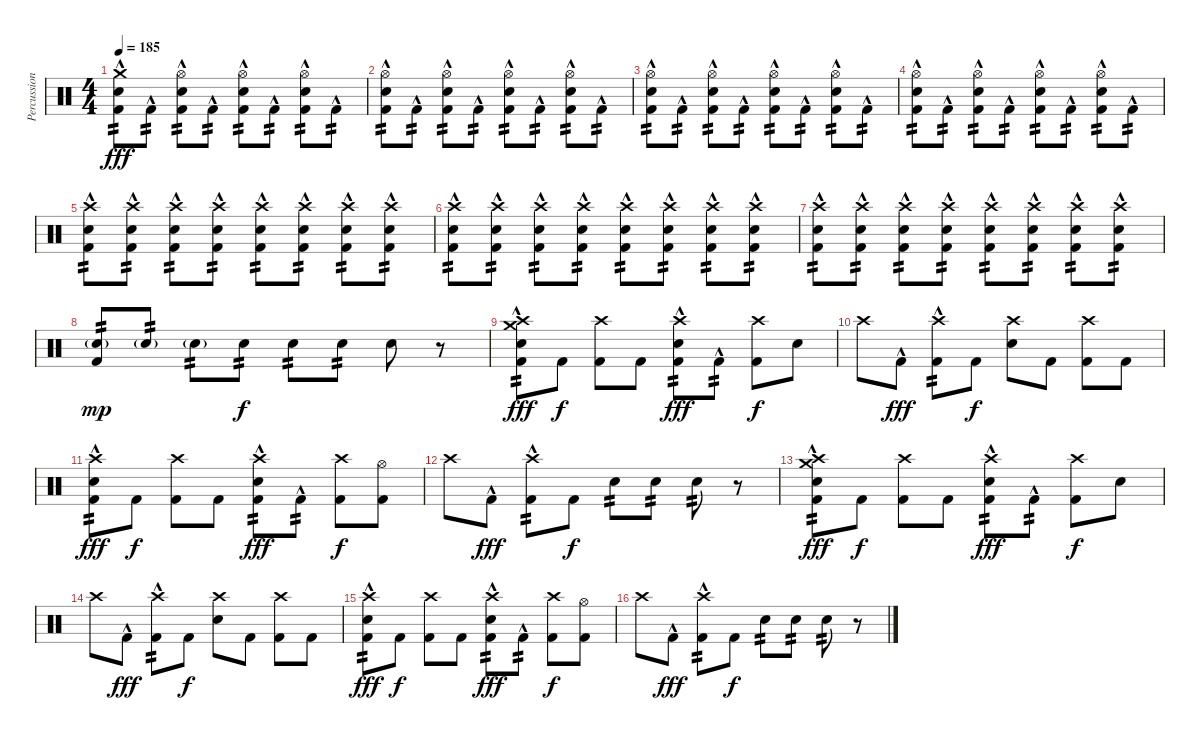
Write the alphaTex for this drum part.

\track ("Percussion" "Percussion") {instrument percussion}
\staff {score}
\articulation defaults
\ts (4 4)
\tempo 185
\clef neutral
\ks c
("Crash medium (hit)" "Snare (hit) 2" "Kick (hit) 2"{hac}).8{tp 2 dy fff} "Kick (hit) 2"{hac}.8{tp 2} ("Hi-Hat (open)" "Snare (hit) 2" "Kick (hit) 2"{hac}).8{tp 2} "Kick (hit) 2"{hac}.8{tp 2} ("Hi-Hat (open)" "Snare (hit) 2" "Kick (hit) 2"{hac}).8{tp 2} "Kick (hit) 2"{hac}.8{tp 2} ("Hi-Hat (open)" "Snare (hit) 2" "Kick (hit) 2"{hac}).8{tp 2} "Kick (hit) 2"{hac}.8{tp 2} |
("Hi-Hat (open)" "Snare (hit) 2" "Kick (hit) 2"{hac}).8{tp 2} "Kick (hit) 2"{hac}.8{tp 2} ("Hi-Hat (open)" "Snare (hit) 2" "Kick (hit) 2"{hac}).8{tp 2} "Kick (hit) 2"{hac}.8{tp 2} ("Hi-Hat (open)" "Snare (hit) 2" "Kick (hit) 2"{hac}).8{tp 2} "Kick (hit) 2"{hac}.8{tp 2} ("Hi-Hat (open)" "Snare (hit) 2" "Kick (hit) 2"{hac}).8{tp 2} "Kick (hit) 2"{hac}.8{tp 2} |
("Hi-Hat (open)" "Snare (hit) 2" "Kick (hit) 2"{hac}).8{tp 2} "Kick (hit) 2"{hac}.8{tp 2} ("Hi-Hat (open)" "Snare (hit) 2" "Kick (hit) 2"{hac}).8{tp 2} "Kick (hit) 2"{hac}.8{tp 2} ("Hi-Hat (open)" "Snare (hit) 2" "Kick (hit) 2"{hac}).8{tp 2} "Kick (hit) 2"{hac}.8{tp 2} ("Hi-Hat (open)" "Snare (hit) 2" "Kick (hit) 2"{hac}).8{tp 2} "Kick (hit) 2"{hac}.8{tp 2} |
("Hi-Hat (open)" "Snare (hit) 2" "Kick (hit) 2"{hac}).8{tp 2} "Kick (hit) 2"{hac}.8{tp 2} ("Hi-Hat (open)" "Snare (hit) 2" "Kick (hit) 2"{hac}).8{tp 2} "Kick (hit) 2"{hac}.8{tp 2} ("Hi-Hat (open)" "Snare (hit) 2" "Kick (hit) 2"{hac}).8{tp 2} "Kick (hit) 2"{hac}.8{tp 2} ("Hi-Hat (open)" "Snare (hit) 2" "Kick (hit) 2"{hac}).8{tp 2} "Kick (hit) 2"{hac}.8{tp 2} |
("Crash high (hit)" "Snare (hit) 2" "Kick (hit) 2"{hac}).8{tp 2} ("Crash high (hit)" "Snare (hit) 2" "Kick (hit) 2"{hac}).8{tp 2} ("Crash high (hit)" "Snare (hit) 2" "Kick (hit) 2"{hac}).8{tp 2} ("Crash high (hit)" "Snare (hit) 2" "Kick (hit) 2"{hac}).8{tp 2} ("Crash high (hit)" "Snare (hit) 2" "Kick (hit) 2"{hac}).8{tp 2} ("Crash high (hit)" "Snare (hit) 2" "Kick (hit) 2"{hac}).8{tp 2} ("Crash high (hit)" "Snare (hit) 2" "Kick (hit) 2"{hac}).8{tp 2} ("Crash high (hit)" "Snare (hit) 2" "Kick (hit) 2"{hac}).8{tp 2} |
("Crash high (hit)" "Snare (hit) 2" "Kick (hit) 2"{hac}).8{tp 2} ("Crash high (hit)" "Snare (hit) 2" "Kick (hit) 2"{hac}).8{tp 2} ("Crash high (hit)" "Snare (hit) 2" "Kick (hit) 2"{hac}).8{tp 2} ("Crash high (hit)" "Snare (hit) 2" "Kick (hit) 2"{hac}).8{tp 2} ("Crash high (hit)" "Snare (hit) 2" "Kick (hit) 2"{hac}).8{tp 2} ("Crash high (hit)" "Snare (hit) 2" "Kick (hit) 2"{hac}).8{tp 2} ("Crash high (hit)" "Snare (hit) 2" "Kick (hit) 2"{hac}).8{tp 2} ("Crash high (hit)" "Snare (hit) 2" "Kick (hit) 2"{hac}).8{tp 2} |
("Crash high (hit)" "Snare (hit) 2" "Kick (hit) 2"{hac}).8{tp 2} ("Crash high (hit)" "Snare (hit) 2" "Kick (hit) 2"{hac}).8{tp 2} ("Crash high (hit)" "Snare (hit) 2" "Kick (hit) 2"{hac}).8{tp 2} ("Crash high (hit)" "Snare (hit) 2" "Kick (hit) 2"{hac}).8{tp 2} ("Crash high (hit)" "Snare (hit) 2" "Kick (hit) 2"{hac}).8{tp 2} ("Crash high (hit)" "Snare (hit) 2" "Kick (hit) 2"{hac}).8{tp 2} ("Crash high (hit)" "Snare (hit) 2" "Kick (hit) 2"{hac}).8{tp 2} ("Crash high (hit)" "Snare (hit) 2" "Kick (hit) 2"{hac}).8{tp 2} |
("Snare (hit) 2"{g} "Kick (hit) 2").8{tp 2 dy mp} "Snare (hit) 2"{g}.8{tp 2} "Snare (hit) 2"{g}.8{tp 2} "Snare (hit) 2".8{tp 2 dy f} "Snare (hit) 2".8{tp 2} "Snare (hit) 2".8{tp 2} "Snare (hit) 2".8 r.8 |
("Crash medium (hit)" "Crash high (hit)" "Kick (hit) 2"{hac} "Snare (hit) 2").8{tp 2 dy fff} "Kick (hit) 2".8{dy f} ("Crash high (hit)" "Kick (hit) 2").8 "Kick (hit) 2".8 ("Crash high (hit)" "Kick (hit) 2"{hac} "Snare (hit) 2").8{tp 2 dy fff} "Kick (hit) 2"{hac}.8{tp 2} ("Crash high (hit)" "Kick (hit) 2").8{dy f} "Snare (hit) 2".8 |
"Crash high (hit)".8 "Kick (hit) 2"{hac}.8{dy fff} ("Crash high (hit)" "Kick (hit) 2"{hac}).8{tp 2} "Kick (hit) 2".8{dy f} ("Crash high (hit)" "Snare (hit) 2").8 "Kick (hit) 2".8 ("Crash high (hit)" "Kick (hit) 2").8 "Kick (hit) 2".8 |
("Crash high (hit)" "Kick (hit) 2"{hac} "Snare (hit) 2").8{tp 2 dy fff} "Kick (hit) 2".8{dy f} ("Crash high (hit)" "Kick (hit) 2").8 "Kick (hit) 2".8 ("Crash high (hit)" "Kick (hit) 2"{hac} "Snare (hit) 2").8{tp 2 dy fff} "Kick (hit) 2"{hac}.8{tp 2} ("Crash high (hit)" "Kick (hit) 2").8{dy f} ("Hi-Hat (open)" "Kick (hit) 2").8 |
"Crash high (hit)".8 "Kick (hit) 2"{hac}.8{dy fff} ("Crash high (hit)" "Kick (hit) 2"{hac}).8{tp 2} "Kick (hit) 2".8{dy f} "Snare (hit) 2".8{tp 2} "Snare (hit) 2".8{tp 2} "Snare (hit) 2".8{tp 2} r.8 |
("Crash medium (hit)" "Crash high (hit)" "Kick (hit) 2"{hac} "Snare (hit) 2").8{tp 2 dy fff} "Kick (hit) 2".8{dy f} ("Crash high (hit)" "Kick (hit) 2").8 "Kick (hit) 2".8 ("Crash high (hit)" "Kick (hit) 2"{hac} "Snare (hit) 2").8{tp 2 dy fff} "Kick (hit) 2"{hac}.8{tp 2} ("Crash high (hit)" "Kick (hit) 2").8{dy f} "Snare (hit) 2".8 |
"Crash high (hit)".8 "Kick (hit) 2"{hac}.8{dy fff} ("Crash high (hit)" "Kick (hit) 2"{hac}).8{tp 2} "Kick (hit) 2".8{dy f} ("Crash high (hit)" "Snare (hit) 2").8 "Kick (hit) 2".8 ("Crash high (hit)" "Kick (hit) 2").8 "Kick (hit) 2".8 |
("Crash high (hit)" "Kick (hit) 2"{hac} "Snare (hit) 2").8{tp 2 dy fff} "Kick (hit) 2".8{dy f} ("Crash high (hit)" "Kick (hit) 2").8 "Kick (hit) 2".8 ("Crash high (hit)" "Kick (hit) 2"{hac} "Snare (hit) 2").8{tp 2 dy fff} "Kick (hit) 2"{hac}.8{tp 2} ("Crash high (hit)" "Kick (hit) 2").8{dy f} ("Hi-Hat (open)" "Kick (hit) 2").8 |
"Crash high (hit)".8 "Kick (hit) 2"{hac}.8{dy fff} ("Crash high (hit)" "Kick (hit) 2"{hac}).8{tp 2} "Kick (hit) 2".8{dy f} "Snare (hit) 2".8{tp 2} "Snare (hit) 2".8{tp 2} "Snare (hit) 2".8{tp 2} r.8
